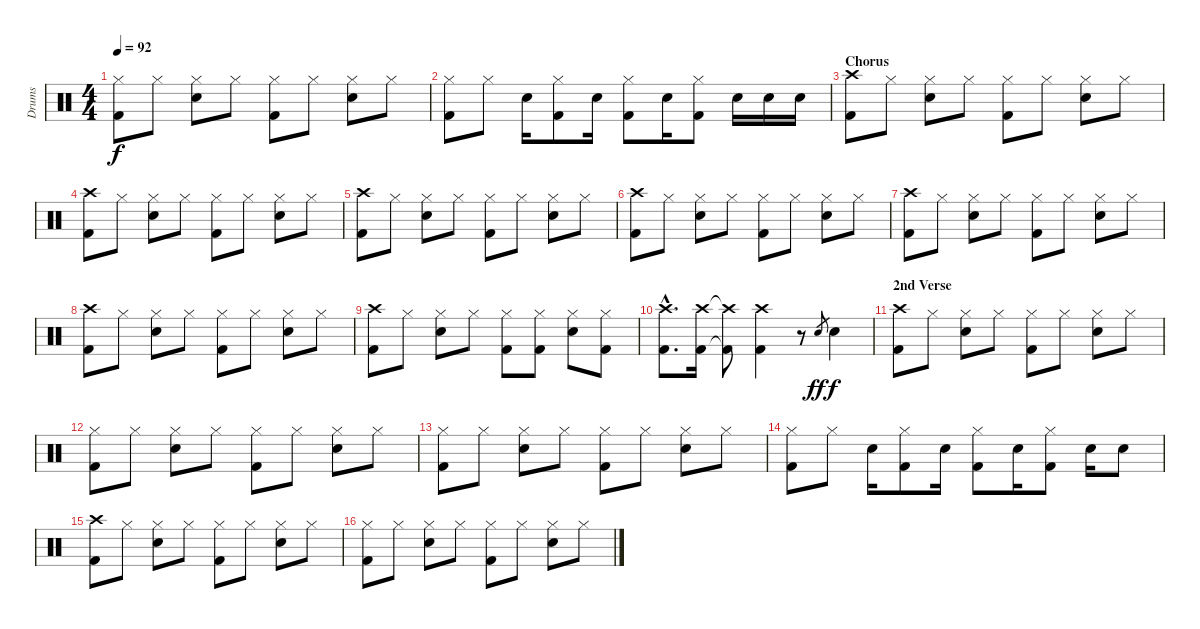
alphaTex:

\track ("Drums" "Drums") {instrument percussion}
\staff {score}
\articulation defaults
\ts (4 4)
\tempo 92
\clef neutral
\ks c
("Hi-Hat (closed)" "Kick (hit) 2").8{dy f} "Hi-Hat (closed)".8 ("Hi-Hat (closed)" "Snare (hit) 2").8 "Hi-Hat (closed)".8 ("Hi-Hat (closed)" "Kick (hit) 2").8 "Hi-Hat (closed)".8 ("Hi-Hat (closed)" "Snare (hit) 2").8 "Hi-Hat (closed)".8 |
("Hi-Hat (closed)" "Kick (hit) 2").8 "Hi-Hat (closed)".8 "Snare (hit) 2".16 ("Hi-Hat (closed)" "Kick (hit) 2").8 "Snare (hit) 2".16 ("Hi-Hat (closed)" "Kick (hit) 2").8 "Snare (hit) 2".16 ("Hi-Hat (closed)" "Kick (hit) 2").8 "Snare (hit) 2".16 "Snare (hit) 2".16 "Snare (hit) 2".16 |
\section ("" "Chorus")
("Crash high (hit)" "Kick (hit) 2").8 "Hi-Hat (closed)".8 ("Hi-Hat (closed)" "Snare (hit) 2").8 "Hi-Hat (closed)".8 ("Hi-Hat (closed)" "Kick (hit) 2").8 "Hi-Hat (closed)".8 ("Hi-Hat (closed)" "Snare (hit) 2").8 "Hi-Hat (closed)".8 |
("Crash high (hit)" "Kick (hit) 2").8 "Hi-Hat (closed)".8 ("Hi-Hat (closed)" "Snare (hit) 2").8 "Hi-Hat (closed)".8 ("Hi-Hat (closed)" "Kick (hit) 2").8 "Hi-Hat (closed)".8 ("Hi-Hat (closed)" "Snare (hit) 2").8 "Hi-Hat (closed)".8 |
("Crash high (hit)" "Kick (hit) 2").8 "Hi-Hat (closed)".8 ("Hi-Hat (closed)" "Snare (hit) 2").8 "Hi-Hat (closed)".8 ("Hi-Hat (closed)" "Kick (hit) 2").8 "Hi-Hat (closed)".8 ("Hi-Hat (closed)" "Snare (hit) 2").8 "Hi-Hat (closed)".8 |
("Crash high (hit)" "Kick (hit) 2").8 "Hi-Hat (closed)".8 ("Hi-Hat (closed)" "Snare (hit) 2").8 "Hi-Hat (closed)".8 ("Hi-Hat (closed)" "Kick (hit) 2").8 "Hi-Hat (closed)".8 ("Hi-Hat (closed)" "Snare (hit) 2").8 "Hi-Hat (closed)".8 |
("Crash high (hit)" "Kick (hit) 2").8 "Hi-Hat (closed)".8 ("Hi-Hat (closed)" "Snare (hit) 2").8 "Hi-Hat (closed)".8 ("Hi-Hat (closed)" "Kick (hit) 2").8 "Hi-Hat (closed)".8 ("Hi-Hat (closed)" "Snare (hit) 2").8 "Hi-Hat (closed)".8 |
("Crash high (hit)" "Kick (hit) 2").8 "Hi-Hat (closed)".8 ("Hi-Hat (closed)" "Snare (hit) 2").8 "Hi-Hat (closed)".8 ("Hi-Hat (closed)" "Kick (hit) 2").8 "Hi-Hat (closed)".8 ("Hi-Hat (closed)" "Snare (hit) 2").8 "Hi-Hat (closed)".8 |
("Crash high (hit)" "Kick (hit) 2").8 "Hi-Hat (closed)".8 ("Hi-Hat (closed)" "Snare (hit) 2").8 "Hi-Hat (closed)".8 ("Hi-Hat (closed)" "Kick (hit) 2").8 ("Hi-Hat (closed)" "Kick (hit) 2").8 ("Hi-Hat (closed)" "Snare (hit) 2").8 ("Hi-Hat (closed)" "Kick (hit) 2").8 |
("Crash high (hit)"{hac} "Kick (hit) 2"{hac}).8{d} ("Crash high (hit)" "Kick (hit) 2").16 ("Crash high (hit)"{t} "Kick (hit) 2"{t}).8 ("Crash high (hit)" "Kick (hit) 2").4 r.8 "Snare (hit) 2".8{gr dy ff} "Snare (hit) 2".4{dy f} |
\section ("" "2nd Verse")
("Crash high (hit)" "Kick (hit) 2").8 "Hi-Hat (closed)".8 ("Hi-Hat (closed)" "Snare (hit) 2").8 "Hi-Hat (closed)".8 ("Hi-Hat (closed)" "Kick (hit) 2").8 "Hi-Hat (closed)".8 ("Hi-Hat (closed)" "Snare (hit) 2").8 "Hi-Hat (closed)".8 |
("Hi-Hat (closed)" "Kick (hit) 2").8 "Hi-Hat (closed)".8 ("Hi-Hat (closed)" "Snare (hit) 2").8 "Hi-Hat (closed)".8 ("Hi-Hat (closed)" "Kick (hit) 2").8 "Hi-Hat (closed)".8 ("Hi-Hat (closed)" "Snare (hit) 2").8 "Hi-Hat (closed)".8 |
("Hi-Hat (closed)" "Kick (hit) 2").8 "Hi-Hat (closed)".8 ("Hi-Hat (closed)" "Snare (hit) 2").8 "Hi-Hat (closed)".8 ("Hi-Hat (closed)" "Kick (hit) 2").8 "Hi-Hat (closed)".8 ("Hi-Hat (closed)" "Snare (hit) 2").8 "Hi-Hat (closed)".8 |
("Hi-Hat (closed)" "Kick (hit) 2").8 "Hi-Hat (closed)".8 "Snare (hit) 2".16 ("Hi-Hat (closed)" "Kick (hit) 2").8 "Snare (hit) 2".16 ("Hi-Hat (closed)" "Kick (hit) 2").8 "Snare (hit) 2".16 ("Hi-Hat (closed)" "Kick (hit) 2").8 "Snare (hit) 2".16 "Snare (hit) 2".8 |
("Crash high (hit)" "Kick (hit) 2").8 "Hi-Hat (closed)".8 ("Hi-Hat (closed)" "Snare (hit) 2").8 "Hi-Hat (closed)".8 ("Hi-Hat (closed)" "Kick (hit) 2").8 "Hi-Hat (closed)".8 ("Hi-Hat (closed)" "Snare (hit) 2").8 "Hi-Hat (closed)".8 |
("Hi-Hat (closed)" "Kick (hit) 2").8 "Hi-Hat (closed)".8 ("Hi-Hat (closed)" "Snare (hit) 2").8 "Hi-Hat (closed)".8 ("Hi-Hat (closed)" "Kick (hit) 2").8 "Hi-Hat (closed)".8 ("Hi-Hat (closed)" "Snare (hit) 2").8 "Hi-Hat (closed)".8
